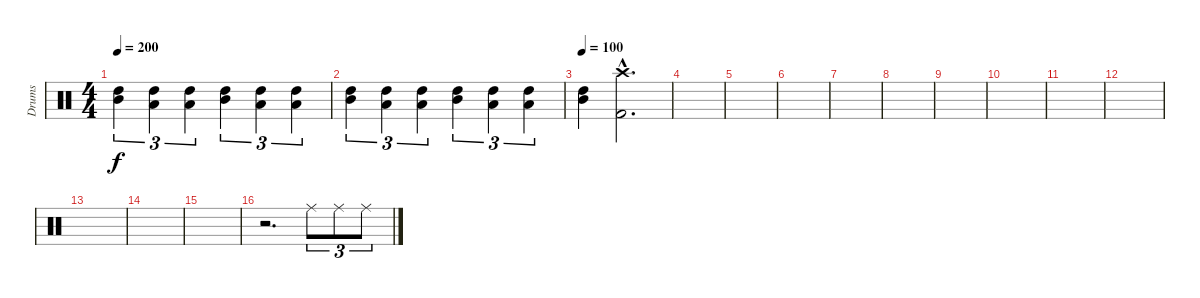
\track ("Drums" "Drums") {instrument percussion}
\staff {score}
\articulation defaults
\ts (4 4)
\tempo 200
\clef neutral
\ks c
("Mid Tom (hit)" "High Tom (hit)").4{tu (3 2) dy f} ("Low Tom (hit)" "High Tom (hit)").4{tu (3 2)} ("Low Tom (hit)" "High Tom (hit)").4{tu (3 2)} ("Mid Tom (hit)" "High Tom (hit)").4{tu (3 2)} ("Low Tom (hit)" "High Tom (hit)").4{tu (3 2)} ("Low Tom (hit)" "High Tom (hit)").4{tu (3 2)} |
("Mid Tom (hit)" "High Tom (hit)").4{tu (3 2)} ("Low Tom (hit)" "High Tom (hit)").4{tu (3 2)} ("Low Tom (hit)" "High Tom (hit)").4{tu (3 2)} ("Mid Tom (hit)" "High Tom (hit)").4{tu (3 2)} ("Low Tom (hit)" "High Tom (hit)").4{tu (3 2)} ("Low Tom (hit)" "High Tom (hit)").4{tu (3 2)} |
\tempo 100
("Mid Tom (hit)" "High Tom (hit)").4 ("Crash high (hit)"{hac} "Kick (hit) 2"{hac}).2{d} |
|
|
|
|
|
|
|
|
|
|
|
|
r.2{d} "Ride (middle)".8{tu (3 2)} "Ride (middle)".8{tu (3 2)} "Ride (middle)".8{tu (3 2)}
